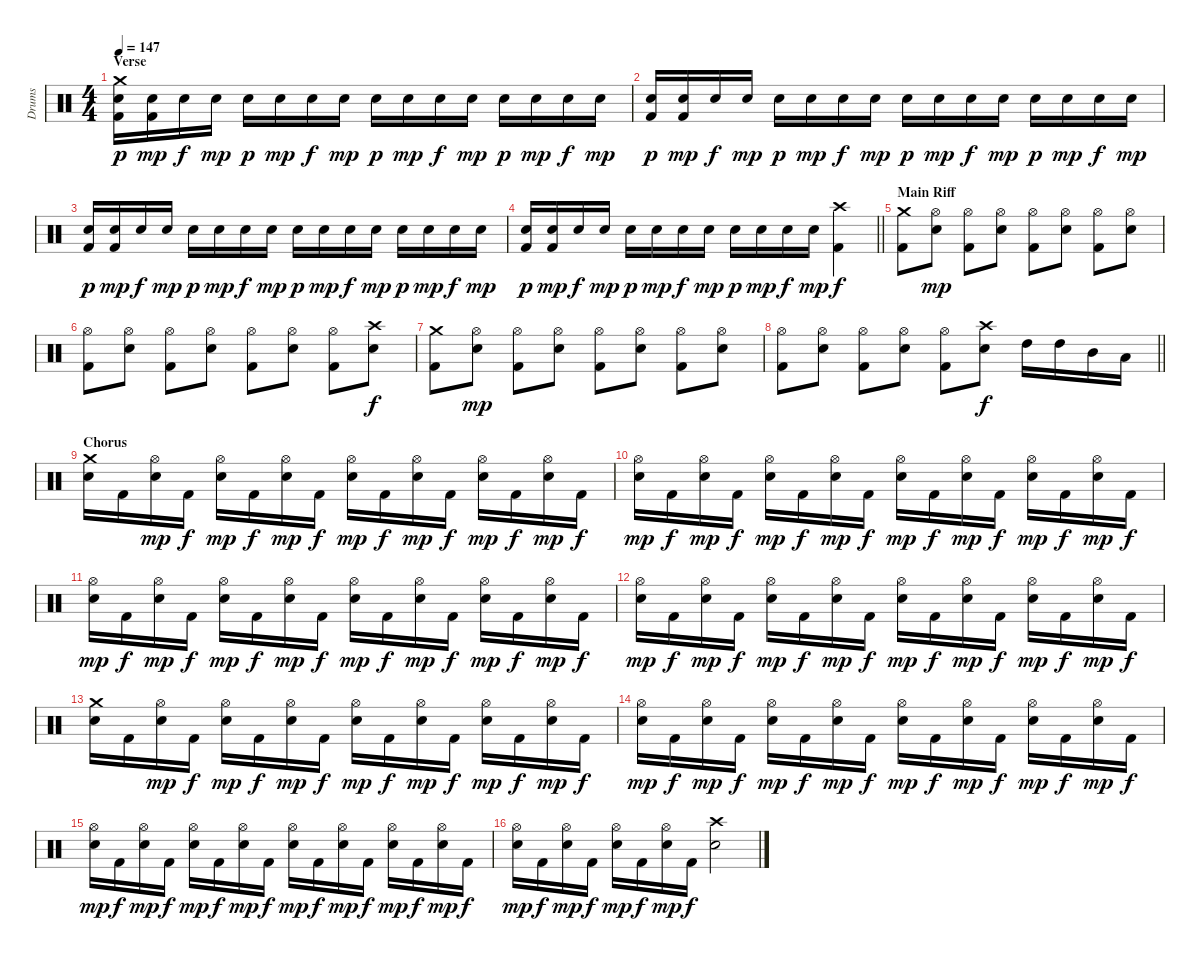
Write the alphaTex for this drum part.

\track ("Drums" "Drums") {instrument percussion}
\staff {score}
\articulation defaults
\ts (4 4)
\section ("" "Verse")
\tempo 147
\clef neutral
\ks c
("Crash medium (hit)" "Snare (hit) 2" "Kick (hit) 2").16{dy p} ("Snare (hit) 2" "Kick (hit) 2").16{dy mp} "Snare (hit) 2".16{dy f} "Snare (hit) 2".16{dy mp} "Snare (hit) 2".16{dy p} "Snare (hit) 2".16{dy mp} "Snare (hit) 2".16{dy f} "Snare (hit) 2".16{dy mp} "Snare (hit) 2".16{dy p} "Snare (hit) 2".16{dy mp} "Snare (hit) 2".16{dy f} "Snare (hit) 2".16{dy mp} "Snare (hit) 2".16{dy p} "Snare (hit) 2".16{dy mp} "Snare (hit) 2".16{dy f} "Snare (hit) 2".16{dy mp} |
("Snare (hit) 2" "Kick (hit) 2").16{dy p} ("Snare (hit) 2" "Kick (hit) 2").16{dy mp} "Snare (hit) 2".16{dy f} "Snare (hit) 2".16{dy mp} "Snare (hit) 2".16{dy p} "Snare (hit) 2".16{dy mp} "Snare (hit) 2".16{dy f} "Snare (hit) 2".16{dy mp} "Snare (hit) 2".16{dy p} "Snare (hit) 2".16{dy mp} "Snare (hit) 2".16{dy f} "Snare (hit) 2".16{dy mp} "Snare (hit) 2".16{dy p} "Snare (hit) 2".16{dy mp} "Snare (hit) 2".16{dy f} "Snare (hit) 2".16{dy mp} |
("Snare (hit) 2" "Kick (hit) 2").16{dy p} ("Snare (hit) 2" "Kick (hit) 2").16{dy mp} "Snare (hit) 2".16{dy f} "Snare (hit) 2".16{dy mp} "Snare (hit) 2".16{dy p} "Snare (hit) 2".16{dy mp} "Snare (hit) 2".16{dy f} "Snare (hit) 2".16{dy mp} "Snare (hit) 2".16{dy p} "Snare (hit) 2".16{dy mp} "Snare (hit) 2".16{dy f} "Snare (hit) 2".16{dy mp} "Snare (hit) 2".16{dy p} "Snare (hit) 2".16{dy mp} "Snare (hit) 2".16{dy f} "Snare (hit) 2".16{dy mp} |
\barLineRight lightlight
("Snare (hit) 2" "Kick (hit) 2").16{dy p} ("Snare (hit) 2" "Kick (hit) 2").16{dy mp} "Snare (hit) 2".16{dy f} "Snare (hit) 2".16{dy mp} "Snare (hit) 2".16{dy p} "Snare (hit) 2".16{dy mp} "Snare (hit) 2".16{dy f} "Snare (hit) 2".16{dy mp} "Snare (hit) 2".16{dy p} "Snare (hit) 2".16{dy mp} "Snare (hit) 2".16{dy f} "Snare (hit) 2".16{dy mp} ("Crash high (hit)" "Kick (hit) 2").4{dy f} |
\section ("" "Main Riff")
("Crash medium (hit)" "Kick (hit) 2").8 ("Hi-Hat (open)" "Snare (hit) 2").8{dy mp} ("Hi-Hat (open)" "Kick (hit) 2").8 ("Hi-Hat (open)" "Snare (hit) 2").8 ("Hi-Hat (open)" "Kick (hit) 2").8 ("Hi-Hat (open)" "Snare (hit) 2").8 ("Hi-Hat (open)" "Kick (hit) 2").8 ("Hi-Hat (open)" "Snare (hit) 2").8 |
("Hi-Hat (open)" "Kick (hit) 2").8 ("Hi-Hat (open)" "Snare (hit) 2").8 ("Hi-Hat (open)" "Kick (hit) 2").8 ("Hi-Hat (open)" "Snare (hit) 2").8 ("Hi-Hat (open)" "Kick (hit) 2").8 ("Hi-Hat (open)" "Snare (hit) 2").8 ("Hi-Hat (open)" "Kick (hit) 2").8 ("Crash high (hit)" "Snare (hit) 2").8{dy f} |
("Crash medium (hit)" "Kick (hit) 2").8 ("Hi-Hat (open)" "Snare (hit) 2").8{dy mp} ("Hi-Hat (open)" "Kick (hit) 2").8 ("Hi-Hat (open)" "Snare (hit) 2").8 ("Hi-Hat (open)" "Kick (hit) 2").8 ("Hi-Hat (open)" "Snare (hit) 2").8 ("Hi-Hat (open)" "Kick (hit) 2").8 ("Hi-Hat (open)" "Snare (hit) 2").8 |
\barLineRight lightlight
("Hi-Hat (open)" "Kick (hit) 2").8 ("Hi-Hat (open)" "Snare (hit) 2").8 ("Hi-Hat (open)" "Kick (hit) 2").8 ("Hi-Hat (open)" "Snare (hit) 2").8 ("Hi-Hat (open)" "Kick (hit) 2").8 ("Crash high (hit)" "Snare (hit) 2").8{dy f} "High Tom (hit)".16 "High Tom (hit)".16 "Mid Tom (hit)".16 "Low Tom (hit)".16 |
\section ("" "Chorus")
("Crash medium (hit)" "Snare (hit) 2").16 "Kick (hit) 2".16 ("Hi-Hat (open)" "Snare (hit) 2").16{dy mp} "Kick (hit) 2".16{dy f} ("Hi-Hat (open)" "Snare (hit) 2").16{dy mp} "Kick (hit) 2".16{dy f} ("Hi-Hat (open)" "Snare (hit) 2").16{dy mp} "Kick (hit) 2".16{dy f} ("Hi-Hat (open)" "Snare (hit) 2").16{dy mp} "Kick (hit) 2".16{dy f} ("Hi-Hat (open)" "Snare (hit) 2").16{dy mp} "Kick (hit) 2".16{dy f} ("Hi-Hat (open)" "Snare (hit) 2").16{dy mp} "Kick (hit) 2".16{dy f} ("Hi-Hat (open)" "Snare (hit) 2").16{dy mp} "Kick (hit) 2".16{dy f} |
("Hi-Hat (open)" "Snare (hit) 2").16{dy mp} "Kick (hit) 2".16{dy f} ("Hi-Hat (open)" "Snare (hit) 2").16{dy mp} "Kick (hit) 2".16{dy f} ("Hi-Hat (open)" "Snare (hit) 2").16{dy mp} "Kick (hit) 2".16{dy f} ("Hi-Hat (open)" "Snare (hit) 2").16{dy mp} "Kick (hit) 2".16{dy f} ("Hi-Hat (open)" "Snare (hit) 2").16{dy mp} "Kick (hit) 2".16{dy f} ("Hi-Hat (open)" "Snare (hit) 2").16{dy mp} "Kick (hit) 2".16{dy f} ("Hi-Hat (open)" "Snare (hit) 2").16{dy mp} "Kick (hit) 2".16{dy f} ("Hi-Hat (open)" "Snare (hit) 2").16{dy mp} "Kick (hit) 2".16{dy f} |
("Hi-Hat (open)" "Snare (hit) 2").16{dy mp} "Kick (hit) 2".16{dy f} ("Hi-Hat (open)" "Snare (hit) 2").16{dy mp} "Kick (hit) 2".16{dy f} ("Hi-Hat (open)" "Snare (hit) 2").16{dy mp} "Kick (hit) 2".16{dy f} ("Hi-Hat (open)" "Snare (hit) 2").16{dy mp} "Kick (hit) 2".16{dy f} ("Hi-Hat (open)" "Snare (hit) 2").16{dy mp} "Kick (hit) 2".16{dy f} ("Hi-Hat (open)" "Snare (hit) 2").16{dy mp} "Kick (hit) 2".16{dy f} ("Hi-Hat (open)" "Snare (hit) 2").16{dy mp} "Kick (hit) 2".16{dy f} ("Hi-Hat (open)" "Snare (hit) 2").16{dy mp} "Kick (hit) 2".16{dy f} |
("Hi-Hat (open)" "Snare (hit) 2").16{dy mp} "Kick (hit) 2".16{dy f} ("Hi-Hat (open)" "Snare (hit) 2").16{dy mp} "Kick (hit) 2".16{dy f} ("Hi-Hat (open)" "Snare (hit) 2").16{dy mp} "Kick (hit) 2".16{dy f} ("Hi-Hat (open)" "Snare (hit) 2").16{dy mp} "Kick (hit) 2".16{dy f} ("Hi-Hat (open)" "Snare (hit) 2").16{dy mp} "Kick (hit) 2".16{dy f} ("Hi-Hat (open)" "Snare (hit) 2").16{dy mp} "Kick (hit) 2".16{dy f} ("Hi-Hat (open)" "Snare (hit) 2").16{dy mp} "Kick (hit) 2".16{dy f} ("Hi-Hat (open)" "Snare (hit) 2").16{dy mp} "Kick (hit) 2".16{dy f} |
("Crash medium (hit)" "Snare (hit) 2").16 "Kick (hit) 2".16 ("Hi-Hat (open)" "Snare (hit) 2").16{dy mp} "Kick (hit) 2".16{dy f} ("Hi-Hat (open)" "Snare (hit) 2").16{dy mp} "Kick (hit) 2".16{dy f} ("Hi-Hat (open)" "Snare (hit) 2").16{dy mp} "Kick (hit) 2".16{dy f} ("Hi-Hat (open)" "Snare (hit) 2").16{dy mp} "Kick (hit) 2".16{dy f} ("Hi-Hat (open)" "Snare (hit) 2").16{dy mp} "Kick (hit) 2".16{dy f} ("Hi-Hat (open)" "Snare (hit) 2").16{dy mp} "Kick (hit) 2".16{dy f} ("Hi-Hat (open)" "Snare (hit) 2").16{dy mp} "Kick (hit) 2".16{dy f} |
("Hi-Hat (open)" "Snare (hit) 2").16{dy mp} "Kick (hit) 2".16{dy f} ("Hi-Hat (open)" "Snare (hit) 2").16{dy mp} "Kick (hit) 2".16{dy f} ("Hi-Hat (open)" "Snare (hit) 2").16{dy mp} "Kick (hit) 2".16{dy f} ("Hi-Hat (open)" "Snare (hit) 2").16{dy mp} "Kick (hit) 2".16{dy f} ("Hi-Hat (open)" "Snare (hit) 2").16{dy mp} "Kick (hit) 2".16{dy f} ("Hi-Hat (open)" "Snare (hit) 2").16{dy mp} "Kick (hit) 2".16{dy f} ("Hi-Hat (open)" "Snare (hit) 2").16{dy mp} "Kick (hit) 2".16{dy f} ("Hi-Hat (open)" "Snare (hit) 2").16{dy mp} "Kick (hit) 2".16{dy f} |
("Hi-Hat (open)" "Snare (hit) 2").16{dy mp} "Kick (hit) 2".16{dy f} ("Hi-Hat (open)" "Snare (hit) 2").16{dy mp} "Kick (hit) 2".16{dy f} ("Hi-Hat (open)" "Snare (hit) 2").16{dy mp} "Kick (hit) 2".16{dy f} ("Hi-Hat (open)" "Snare (hit) 2").16{dy mp} "Kick (hit) 2".16{dy f} ("Hi-Hat (open)" "Snare (hit) 2").16{dy mp} "Kick (hit) 2".16{dy f} ("Hi-Hat (open)" "Snare (hit) 2").16{dy mp} "Kick (hit) 2".16{dy f} ("Hi-Hat (open)" "Snare (hit) 2").16{dy mp} "Kick (hit) 2".16{dy f} ("Hi-Hat (open)" "Snare (hit) 2").16{dy mp} "Kick (hit) 2".16{dy f} |
("Hi-Hat (open)" "Snare (hit) 2").16{dy mp} "Kick (hit) 2".16{dy f} ("Hi-Hat (open)" "Snare (hit) 2").16{dy mp} "Kick (hit) 2".16{dy f} ("Hi-Hat (open)" "Snare (hit) 2").16{dy mp} "Kick (hit) 2".16{dy f} ("Hi-Hat (open)" "Snare (hit) 2").16{dy mp} "Kick (hit) 2".16{dy f} ("Crash high (hit)" "Snare (hit) 2").2
